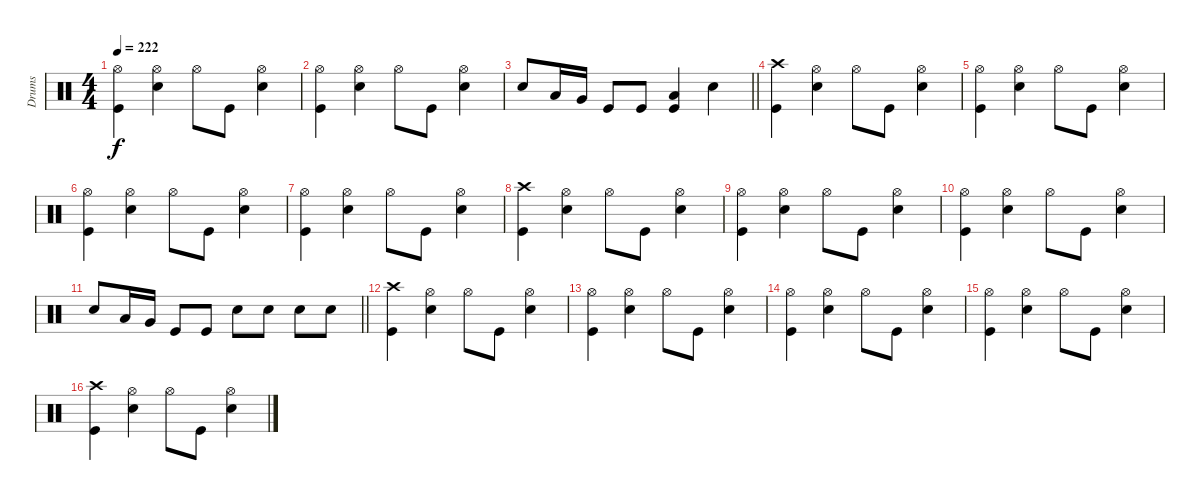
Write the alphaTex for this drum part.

\track ("Drums" "Drums") {instrument percussion}
\staff
\articulation defaults
\ts (4 4)
\tempo 222
\clef neutral
\ks c
("Hi-Hat (open)" "Kick (hit)").4{dy f} ("Hi-Hat (open)" "Electric Snare (hit)").4 "Hi-Hat (open)".8 "Kick (hit)".8 ("Hi-Hat (open)" "Electric Snare (hit)").4 |
("Hi-Hat (open)" "Kick (hit)").4 ("Hi-Hat (open)" "Electric Snare (hit)").4 "Hi-Hat (open)".8 "Kick (hit)".8 ("Hi-Hat (open)" "Electric Snare (hit)").4 |
\barLineRight lightlight "Electric Snare (hit)".8 "Low Tom (hit)".16 "Very Low Tom (hit)".16 "Kick (hit)".8 "Kick (hit)".8
("Low Floor Tom (hit)" "Kick (hit)").4 "Electric Snare (hit)".4 |
("Crash high (hit)" "Kick (hit)").4 ("Hi-Hat (open)" "Electric Snare (hit)").4 "Hi-Hat (open)".8 "Kick (hit)".8 ("Hi-Hat (open)" "Electric Snare (hit)").4 |
("Hi-Hat (open)" "Kick (hit)").4 ("Hi-Hat (open)" "Electric Snare (hit)").4 "Hi-Hat (open)".8 "Kick (hit)".8 ("Hi-Hat (open)" "Electric Snare (hit)").4 |
("Hi-Hat (open)" "Kick (hit)").4 ("Hi-Hat (open)" "Electric Snare (hit)").4 "Hi-Hat (open)".8 "Kick (hit)".8 ("Hi-Hat (open)" "Electric Snare (hit)").4 |
("Hi-Hat (open)" "Kick (hit)").4 ("Hi-Hat (open)" "Electric Snare (hit)").4 "Hi-Hat (open)".8 "Kick (hit)".8 ("Hi-Hat (open)" "Electric Snare (hit)").4 |
("Crash high (hit)" "Kick (hit)").4 ("Hi-Hat (open)" "Electric Snare (hit)").4 "Hi-Hat (open)".8 "Kick (hit)".8 ("Hi-Hat (open)" "Electric Snare (hit)").4 |
("Hi-Hat (open)" "Kick (hit)").4 ("Hi-Hat (open)" "Electric Snare (hit)").4 "Hi-Hat (open)".8 "Kick (hit)".8 ("Hi-Hat (open)" "Electric Snare (hit)").4 |
("Hi-Hat (open)" "Kick (hit)").4 ("Hi-Hat (open)" "Electric Snare (hit)").4 "Hi-Hat (open)".8 "Kick (hit)".8 ("Hi-Hat (open)" "Electric Snare (hit)").4 |
\barLineRight lightlight "Electric Snare (hit)".8 "Low Tom (hit)".16 "Very Low Tom (hit)".16 "Kick (hit)".8 "Kick (hit)".8 "Electric Snare (hit)".8 "Electric Snare (hit)".8 "Electric Snare (hit)".8 "Electric Snare (hit)".8
|
("Crash high (hit)" "Kick (hit)").4 ("Hi-Hat (open)" "Electric Snare (hit)").4 "Hi-Hat (open)".8 "Kick (hit)".8 ("Hi-Hat (open)" "Electric Snare (hit)").4 |
("Hi-Hat (open)" "Kick (hit)").4 ("Hi-Hat (open)" "Electric Snare (hit)").4 "Hi-Hat (open)".8 "Kick (hit)".8 ("Hi-Hat (open)" "Electric Snare (hit)").4 |
("Hi-Hat (open)" "Kick (hit)").4 ("Hi-Hat (open)" "Electric Snare (hit)").4 "Hi-Hat (open)".8 "Kick (hit)".8 ("Hi-Hat (open)" "Electric Snare (hit)").4 |
("Hi-Hat (open)" "Kick (hit)").4 ("Hi-Hat (open)" "Electric Snare (hit)").4 "Hi-Hat (open)".8 "Kick (hit)".8 ("Hi-Hat (open)" "Electric Snare (hit)").4 |
("Crash high (hit)" "Kick (hit)").4 ("Hi-Hat (open)" "Electric Snare (hit)").4 "Hi-Hat (open)".8 "Kick (hit)".8 ("Hi-Hat (open)" "Electric Snare (hit)").4
